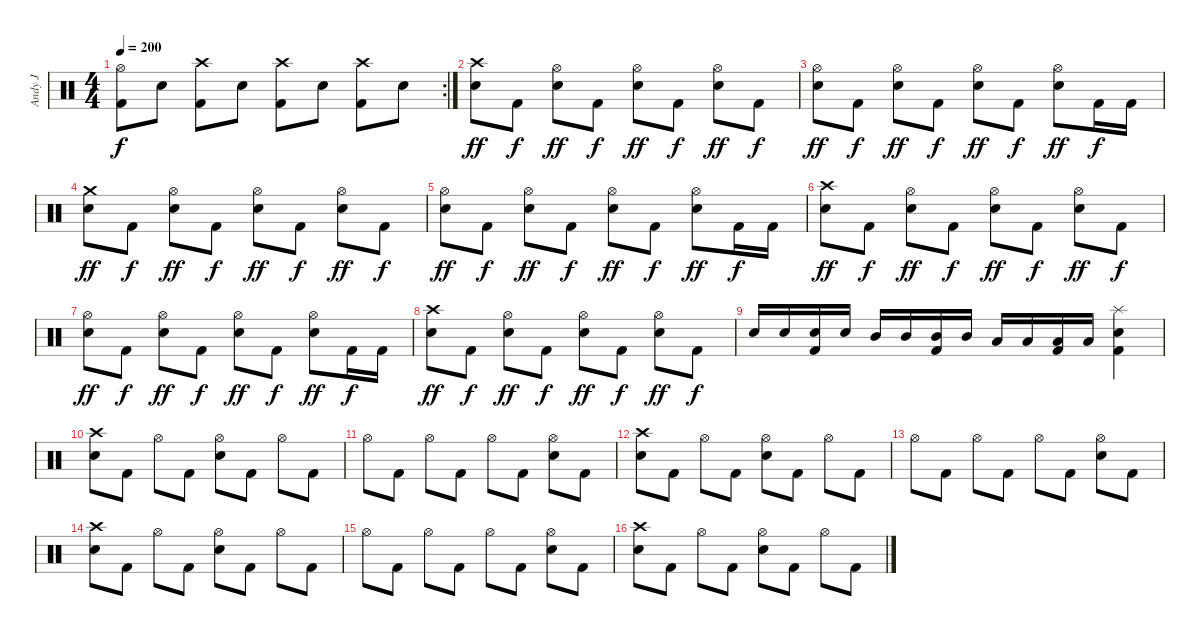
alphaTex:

\track ("Andy J" "Andy J") {instrument percussion}
\staff {score}
\articulation defaults
\rc 2
\ts (4 4)
\tempo 200
\clef neutral
\ks c
("Hi-Hat (open)" "Kick (hit) 2").8{dy f} "Electric Snare (hit)".8 ("Crash high (hit)" "Kick (hit) 2").8 "Electric Snare (hit)".8 ("Crash high (hit)" "Kick (hit) 2").8 "Electric Snare (hit)".8 ("Crash high (hit)" "Kick (hit) 2").8 "Electric Snare (hit)".8 |
("Crash high (hit)" "Electric Snare (hit)").8{dy ff} "Kick (hit) 2".8{dy f} ("Hi-Hat (open)" "Electric Snare (hit)").8{dy ff} "Kick (hit) 2".8{dy f} ("Hi-Hat (open)" "Electric Snare (hit)").8{dy ff} "Kick (hit) 2".8{dy f} ("Hi-Hat (open)" "Electric Snare (hit)").8{dy ff} "Kick (hit) 2".8{dy f} |
("Hi-Hat (open)" "Electric Snare (hit)").8{dy ff} "Kick (hit) 2".8{dy f} ("Hi-Hat (open)" "Electric Snare (hit)").8{dy ff} "Kick (hit) 2".8{dy f} ("Hi-Hat (open)" "Electric Snare (hit)").8{dy ff} "Kick (hit) 2".8{dy f} ("Hi-Hat (open)" "Electric Snare (hit)").8{dy ff} "Kick (hit) 2".16{dy f} "Kick (hit) 2".16 |
("Crash medium (hit)" "Electric Snare (hit)").8{dy ff} "Kick (hit) 2".8{dy f} ("Hi-Hat (open)" "Electric Snare (hit)").8{dy ff} "Kick (hit) 2".8{dy f} ("Hi-Hat (open)" "Electric Snare (hit)").8{dy ff} "Kick (hit) 2".8{dy f} ("Hi-Hat (open)" "Electric Snare (hit)").8{dy ff} "Kick (hit) 2".8{dy f} |
("Hi-Hat (open)" "Electric Snare (hit)").8{dy ff} "Kick (hit) 2".8{dy f} ("Hi-Hat (open)" "Electric Snare (hit)").8{dy ff} "Kick (hit) 2".8{dy f} ("Hi-Hat (open)" "Electric Snare (hit)").8{dy ff} "Kick (hit) 2".8{dy f} ("Hi-Hat (open)" "Electric Snare (hit)").8{dy ff} "Kick (hit) 2".16{dy f} "Kick (hit) 2".16 |
("Crash high (hit)" "Electric Snare (hit)").8{dy ff} "Kick (hit) 2".8{dy f} ("Hi-Hat (open)" "Electric Snare (hit)").8{dy ff} "Kick (hit) 2".8{dy f} ("Hi-Hat (open)" "Electric Snare (hit)").8{dy ff} "Kick (hit) 2".8{dy f} ("Hi-Hat (open)" "Electric Snare (hit)").8{dy ff} "Kick (hit) 2".8{dy f} |
("Hi-Hat (open)" "Electric Snare (hit)").8{dy ff} "Kick (hit) 2".8{dy f} ("Hi-Hat (open)" "Electric Snare (hit)").8{dy ff} "Kick (hit) 2".8{dy f} ("Hi-Hat (open)" "Electric Snare (hit)").8{dy ff} "Kick (hit) 2".8{dy f} ("Hi-Hat (open)" "Electric Snare (hit)").8{dy ff} "Kick (hit) 2".16{dy f} "Kick (hit) 2".16 |
("Crash high (hit)" "Electric Snare (hit)").8{dy ff} "Kick (hit) 2".8{dy f} ("Hi-Hat (open)" "Electric Snare (hit)").8{dy ff} "Kick (hit) 2".8{dy f} ("Hi-Hat (open)" "Electric Snare (hit)").8{dy ff} "Kick (hit) 2".8{dy f} ("Hi-Hat (open)" "Electric Snare (hit)").8{dy ff} "Kick (hit) 2".8{dy f} |
"Electric Snare (hit)".16 "Electric Snare (hit)".16 ("Electric Snare (hit)" "Kick (hit) 2").16 "Electric Snare (hit)".16 "Mid Tom (hit)".16 "Mid Tom (hit)".16 ("Mid Tom (hit)" "Kick (hit) 2").16 "Mid Tom (hit)".16 "Low Tom (hit)".16 "Low Tom (hit)".16 ("Low Tom (hit)" "Kick (hit) 2").16 "Low Tom (hit)".16 ("Splash (hit)" "Electric Snare (hit)" "Kick (hit) 2").4 |
("Crash high (hit)" "Electric Snare (hit)").8 "Kick (hit) 2".8 "Hi-Hat (open)".8 "Kick (hit) 2".8 ("Hi-Hat (open)" "Electric Snare (hit)").8 "Kick (hit) 2".8 "Hi-Hat (open)".8 "Kick (hit) 2".8 |
"Hi-Hat (open)".8 "Kick (hit) 2".8 "Hi-Hat (open)".8 "Kick (hit) 2".8 "Hi-Hat (open)".8 "Kick (hit) 2".8 ("Hi-Hat (open)" "Electric Snare (hit)").8 "Kick (hit) 2".8 |
("Crash high (hit)" "Electric Snare (hit)").8 "Kick (hit) 2".8 "Hi-Hat (open)".8 "Kick (hit) 2".8 ("Hi-Hat (open)" "Electric Snare (hit)").8 "Kick (hit) 2".8 "Hi-Hat (open)".8 "Kick (hit) 2".8 |
"Hi-Hat (open)".8 "Kick (hit) 2".8 "Hi-Hat (open)".8 "Kick (hit) 2".8 "Hi-Hat (open)".8 "Kick (hit) 2".8 ("Hi-Hat (open)" "Electric Snare (hit)").8 "Kick (hit) 2".8 |
("Crash high (hit)" "Electric Snare (hit)").8 "Kick (hit) 2".8 "Hi-Hat (open)".8 "Kick (hit) 2".8 ("Hi-Hat (open)" "Electric Snare (hit)").8 "Kick (hit) 2".8 "Hi-Hat (open)".8 "Kick (hit) 2".8 |
"Hi-Hat (open)".8 "Kick (hit) 2".8 "Hi-Hat (open)".8 "Kick (hit) 2".8 "Hi-Hat (open)".8 "Kick (hit) 2".8 ("Hi-Hat (open)" "Electric Snare (hit)").8 "Kick (hit) 2".8 |
("Crash high (hit)" "Electric Snare (hit)").8 "Kick (hit) 2".8 "Hi-Hat (open)".8 "Kick (hit) 2".8 ("Hi-Hat (open)" "Electric Snare (hit)").8 "Kick (hit) 2".8 "Hi-Hat (open)".8 "Kick (hit) 2".8
